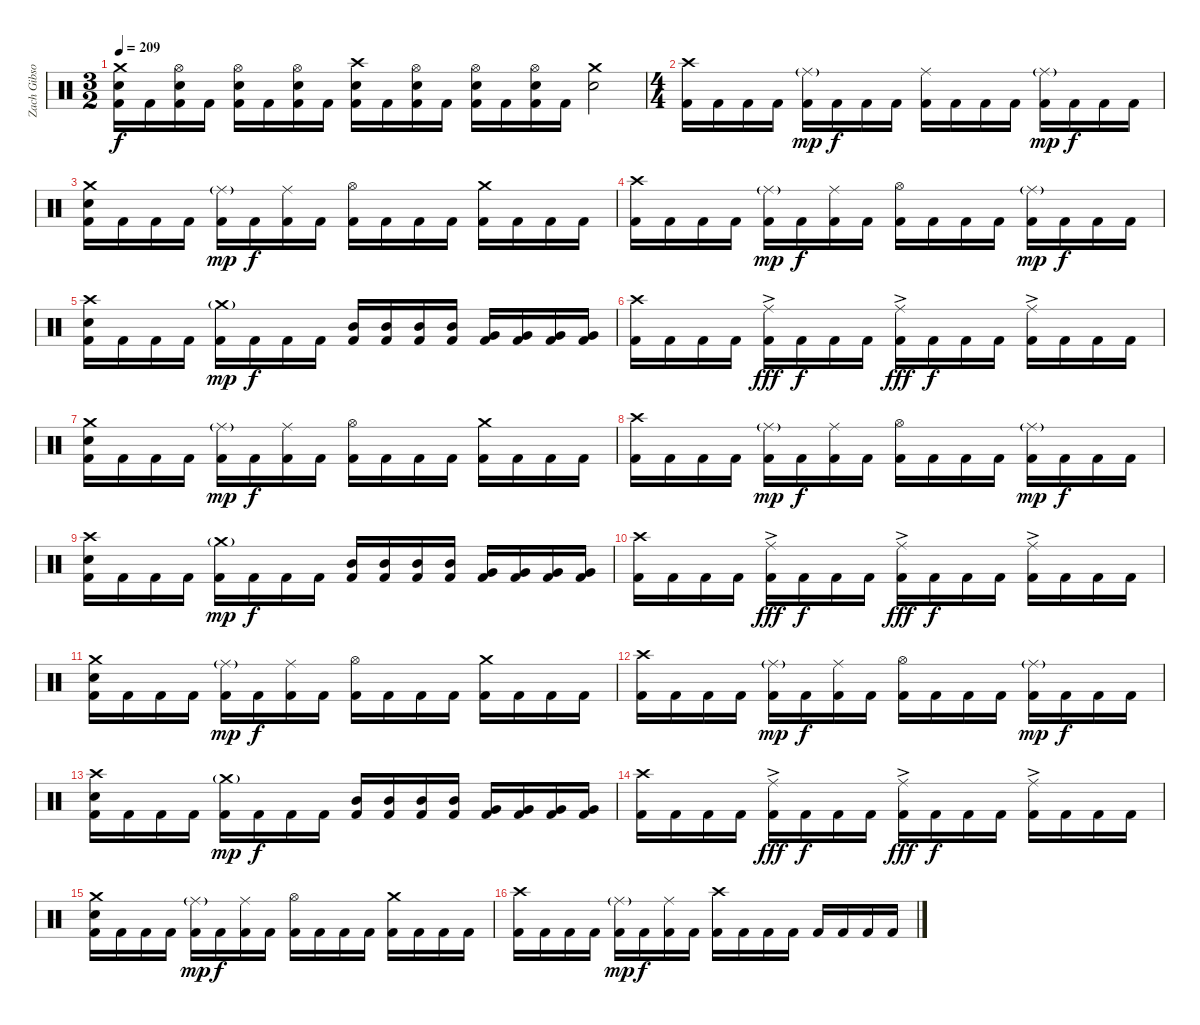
\track ("Zach Gibson (Drums)" "Zach Gibso") {instrument percussion}
\staff {score}
\articulation defaults
\ts (3 2)
\tempo 209
\clef neutral
\ks c
("Crash medium (hit)" "Snare (hit) 2" "Kick (hit) 2").16{dy f} "Kick (hit) 2".16 ("Hi-Hat (open)" "Snare (hit) 2" "Kick (hit) 2").16 "Kick (hit) 2".16 ("Hi-Hat (open)" "Snare (hit) 2" "Kick (hit) 2").16 "Kick (hit) 2".16 ("Hi-Hat (open)" "Snare (hit) 2" "Kick (hit) 2").16 "Kick (hit) 2".16 ("Crash high (hit)" "Snare (hit) 2" "Kick (hit) 2").16 "Kick (hit) 2".16 ("Hi-Hat (open)" "Snare (hit) 2" "Kick (hit) 2").16 "Kick (hit) 2".16 ("Hi-Hat (open)" "Snare (hit) 2" "Kick (hit) 2").16 "Kick (hit) 2".16 ("Hi-Hat (open)" "Snare (hit) 2" "Kick (hit) 2").16 "Kick (hit) 2".16 ("Crash medium (hit)" "Snare (hit) 2").2 |
\ts (4 4)
("Crash high (hit)" "Kick (hit) 2").16 "Kick (hit) 2".16 "Kick (hit) 2".16 "Kick (hit) 2".16 ("Ride (middle)"{g} "Kick (hit) 2").16{dy mp} "Kick (hit) 2".16{dy f} "Kick (hit) 2".16 "Kick (hit) 2".16 ("Ride (middle)" "Kick (hit) 2").16 "Kick (hit) 2".16 "Kick (hit) 2".16 "Kick (hit) 2".16 ("Ride (middle)"{g} "Kick (hit) 2").16{dy mp} "Kick (hit) 2".16{dy f} "Kick (hit) 2".16 "Kick (hit) 2".16 |
("Crash medium (hit)" "Snare (hit) 2" "Kick (hit) 2").16 "Kick (hit) 2".16 "Kick (hit) 2".16 "Kick (hit) 2".16 ("Ride (middle)"{g} "Kick (hit) 2").16{dy mp} "Kick (hit) 2".16{dy f} ("Ride (middle)" "Kick (hit) 2").16 "Kick (hit) 2".16 ("Hi-Hat (open)" "Kick (hit) 2").16 "Kick (hit) 2".16 "Kick (hit) 2".16 "Kick (hit) 2".16 ("Crash medium (hit)" "Kick (hit) 2").16 "Kick (hit) 2".16 "Kick (hit) 2".16 "Kick (hit) 2".16 |
("Crash high (hit)" "Kick (hit) 2").16 "Kick (hit) 2".16 "Kick (hit) 2".16 "Kick (hit) 2".16 ("Ride (middle)"{g} "Kick (hit) 2").16{dy mp} "Kick (hit) 2".16{dy f} ("Ride (middle)" "Kick (hit) 2").16 "Kick (hit) 2".16 ("Hi-Hat (open)" "Kick (hit) 2").16 "Kick (hit) 2".16 "Kick (hit) 2".16 "Kick (hit) 2".16 ("Ride (middle)"{g} "Kick (hit) 2").16{dy mp} "Kick (hit) 2".16{dy f} "Kick (hit) 2".16 "Kick (hit) 2".16 |
("Snare (hit) 2" "Crash high (hit)" "Kick (hit) 2").16 "Kick (hit) 2".16 "Kick (hit) 2".16 "Kick (hit) 2".16 ("Crash medium (hit)"{g} "Kick (hit) 2").16{dy mp} "Kick (hit) 2".16{dy f} "Kick (hit) 2".16 "Kick (hit) 2".16 ("Mid Tom (hit)" "Kick (hit) 2").16 ("Mid Tom (hit)" "Kick (hit) 2").16 ("Mid Tom (hit)" "Kick (hit) 2").16 ("Mid Tom (hit)" "Kick (hit) 2").16 ("Very Low Tom (hit)" "Kick (hit) 2").16 ("Very Low Tom (hit)" "Kick (hit) 2").16 ("Very Low Tom (hit)" "Kick (hit) 2").16 ("Very Low Tom (hit)" "Kick (hit) 2").16 |
("Crash high (hit)" "Kick (hit) 2").16 "Kick (hit) 2".16 "Kick (hit) 2".16 "Kick (hit) 2".16 ("Ride (middle)"{ac} "Kick (hit) 2").16{dy fff} "Kick (hit) 2".16{dy f} "Kick (hit) 2".16 "Kick (hit) 2".16 ("Ride (middle)"{ac} "Kick (hit) 2").16{dy fff} "Kick (hit) 2".16{dy f} "Kick (hit) 2".16 "Kick (hit) 2".16 ("Ride (middle)"{ac} "Kick (hit) 2").16 "Kick (hit) 2".16 "Kick (hit) 2".16 "Kick (hit) 2".16 |
("Crash medium (hit)" "Snare (hit) 2" "Kick (hit) 2").16 "Kick (hit) 2".16 "Kick (hit) 2".16 "Kick (hit) 2".16 ("Ride (middle)"{g} "Kick (hit) 2").16{dy mp} "Kick (hit) 2".16{dy f} ("Ride (middle)" "Kick (hit) 2").16 "Kick (hit) 2".16 ("Hi-Hat (open)" "Kick (hit) 2").16 "Kick (hit) 2".16 "Kick (hit) 2".16 "Kick (hit) 2".16 ("Crash medium (hit)" "Kick (hit) 2").16 "Kick (hit) 2".16 "Kick (hit) 2".16 "Kick (hit) 2".16 |
("Crash high (hit)" "Kick (hit) 2").16 "Kick (hit) 2".16 "Kick (hit) 2".16 "Kick (hit) 2".16 ("Ride (middle)"{g} "Kick (hit) 2").16{dy mp} "Kick (hit) 2".16{dy f} ("Ride (middle)" "Kick (hit) 2").16 "Kick (hit) 2".16 ("Hi-Hat (open)" "Kick (hit) 2").16 "Kick (hit) 2".16 "Kick (hit) 2".16 "Kick (hit) 2".16 ("Ride (middle)"{g} "Kick (hit) 2").16{dy mp} "Kick (hit) 2".16{dy f} "Kick (hit) 2".16 "Kick (hit) 2".16 |
("Snare (hit) 2" "Crash high (hit)" "Kick (hit) 2").16 "Kick (hit) 2".16 "Kick (hit) 2".16 "Kick (hit) 2".16 ("Crash medium (hit)"{g} "Kick (hit) 2").16{dy mp} "Kick (hit) 2".16{dy f} "Kick (hit) 2".16 "Kick (hit) 2".16 ("Mid Tom (hit)" "Kick (hit) 2").16 ("Mid Tom (hit)" "Kick (hit) 2").16 ("Mid Tom (hit)" "Kick (hit) 2").16 ("Mid Tom (hit)" "Kick (hit) 2").16 ("Very Low Tom (hit)" "Kick (hit) 2").16 ("Very Low Tom (hit)" "Kick (hit) 2").16 ("Very Low Tom (hit)" "Kick (hit) 2").16 ("Very Low Tom (hit)" "Kick (hit) 2").16 |
("Crash high (hit)" "Kick (hit) 2").16 "Kick (hit) 2".16 "Kick (hit) 2".16 "Kick (hit) 2".16 ("Ride (middle)"{ac} "Kick (hit) 2").16{dy fff} "Kick (hit) 2".16{dy f} "Kick (hit) 2".16 "Kick (hit) 2".16 ("Ride (middle)"{ac} "Kick (hit) 2").16{dy fff} "Kick (hit) 2".16{dy f} "Kick (hit) 2".16 "Kick (hit) 2".16 ("Ride (middle)"{ac} "Kick (hit) 2").16 "Kick (hit) 2".16 "Kick (hit) 2".16 "Kick (hit) 2".16 |
("Crash medium (hit)" "Snare (hit) 2" "Kick (hit) 2").16 "Kick (hit) 2".16 "Kick (hit) 2".16 "Kick (hit) 2".16 ("Ride (middle)"{g} "Kick (hit) 2").16{dy mp} "Kick (hit) 2".16{dy f} ("Ride (middle)" "Kick (hit) 2").16 "Kick (hit) 2".16 ("Hi-Hat (open)" "Kick (hit) 2").16 "Kick (hit) 2".16 "Kick (hit) 2".16 "Kick (hit) 2".16 ("Crash medium (hit)" "Kick (hit) 2").16 "Kick (hit) 2".16 "Kick (hit) 2".16 "Kick (hit) 2".16 |
("Crash high (hit)" "Kick (hit) 2").16 "Kick (hit) 2".16 "Kick (hit) 2".16 "Kick (hit) 2".16 ("Ride (middle)"{g} "Kick (hit) 2").16{dy mp} "Kick (hit) 2".16{dy f} ("Ride (middle)" "Kick (hit) 2").16 "Kick (hit) 2".16 ("Hi-Hat (open)" "Kick (hit) 2").16 "Kick (hit) 2".16 "Kick (hit) 2".16 "Kick (hit) 2".16 ("Ride (middle)"{g} "Kick (hit) 2").16{dy mp} "Kick (hit) 2".16{dy f} "Kick (hit) 2".16 "Kick (hit) 2".16 |
("Snare (hit) 2" "Crash high (hit)" "Kick (hit) 2").16 "Kick (hit) 2".16 "Kick (hit) 2".16 "Kick (hit) 2".16 ("Crash medium (hit)"{g} "Kick (hit) 2").16{dy mp} "Kick (hit) 2".16{dy f} "Kick (hit) 2".16 "Kick (hit) 2".16 ("Mid Tom (hit)" "Kick (hit) 2").16 ("Mid Tom (hit)" "Kick (hit) 2").16 ("Mid Tom (hit)" "Kick (hit) 2").16 ("Mid Tom (hit)" "Kick (hit) 2").16 ("Very Low Tom (hit)" "Kick (hit) 2").16 ("Very Low Tom (hit)" "Kick (hit) 2").16 ("Very Low Tom (hit)" "Kick (hit) 2").16 ("Very Low Tom (hit)" "Kick (hit) 2").16 |
("Crash high (hit)" "Kick (hit) 2").16 "Kick (hit) 2".16 "Kick (hit) 2".16 "Kick (hit) 2".16 ("Ride (middle)"{ac} "Kick (hit) 2").16{dy fff} "Kick (hit) 2".16{dy f} "Kick (hit) 2".16 "Kick (hit) 2".16 ("Ride (middle)"{ac} "Kick (hit) 2").16{dy fff} "Kick (hit) 2".16{dy f} "Kick (hit) 2".16 "Kick (hit) 2".16 ("Ride (middle)"{ac} "Kick (hit) 2").16 "Kick (hit) 2".16 "Kick (hit) 2".16 "Kick (hit) 2".16 |
("Crash medium (hit)" "Snare (hit) 2" "Kick (hit) 2").16 "Kick (hit) 2".16 "Kick (hit) 2".16 "Kick (hit) 2".16 ("Ride (middle)"{g} "Kick (hit) 2").16{dy mp} "Kick (hit) 2".16{dy f} ("Ride (middle)" "Kick (hit) 2").16 "Kick (hit) 2".16 ("Hi-Hat (open)" "Kick (hit) 2").16 "Kick (hit) 2".16 "Kick (hit) 2".16 "Kick (hit) 2".16 ("Crash medium (hit)" "Kick (hit) 2").16 "Kick (hit) 2".16 "Kick (hit) 2".16 "Kick (hit) 2".16 |
("Crash high (hit)" "Kick (hit) 2").16 "Kick (hit) 2".16 "Kick (hit) 2".16 "Kick (hit) 2".16 ("Ride (middle)"{g} "Kick (hit) 2").16{dy mp} "Kick (hit) 2".16{dy f} ("Ride (middle)" "Kick (hit) 2").16 "Kick (hit) 2".16 ("Crash high (hit)" "Kick (hit) 2").16 "Kick (hit) 2".16 "Kick (hit) 2".16 "Kick (hit) 2".16 "Kick (hit) 2".16 "Kick (hit) 2".16 "Kick (hit) 2".16 "Kick (hit) 2".16
